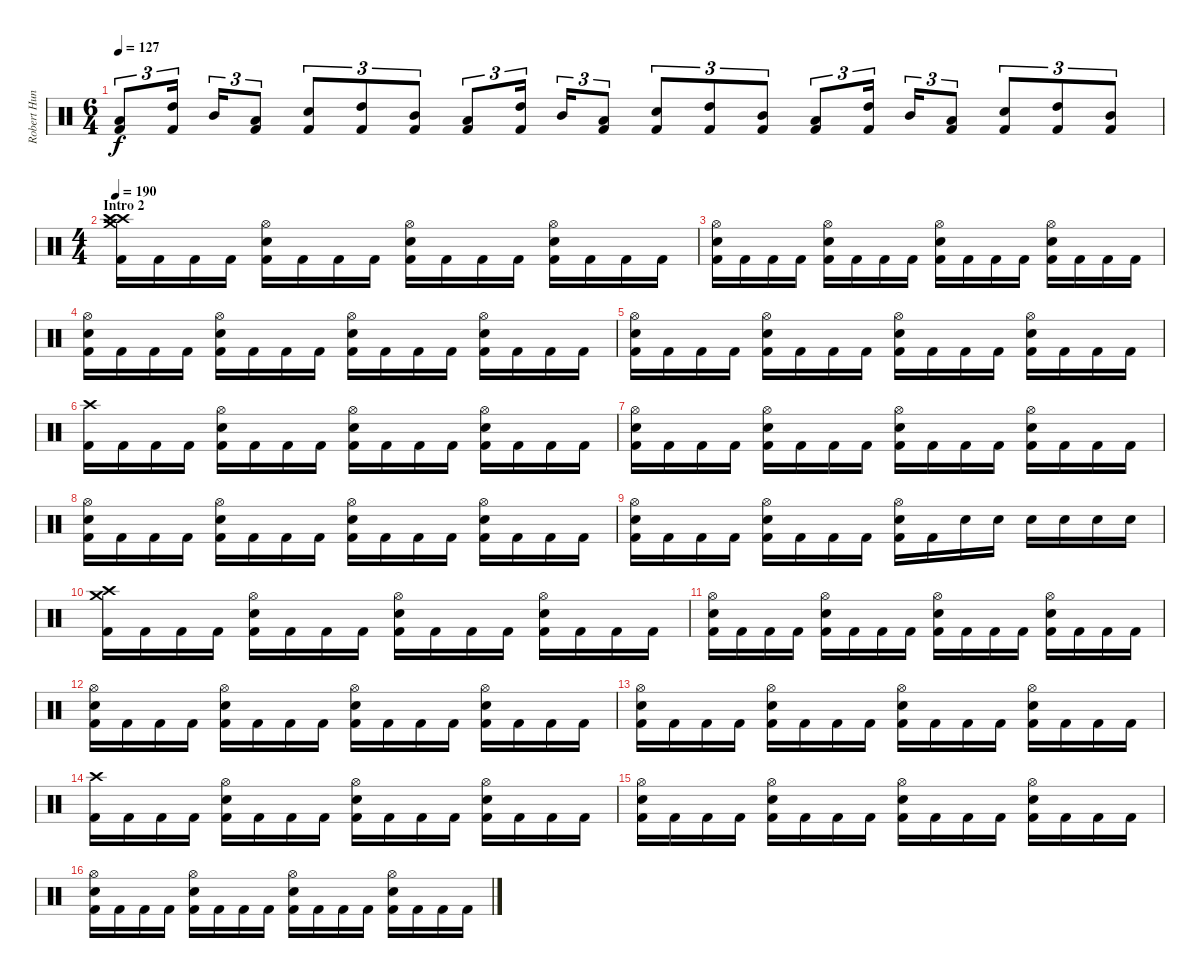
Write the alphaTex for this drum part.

\track ("Robert Hunecke" "Robert Hun") {instrument percussion}
\staff {score}
\articulation defaults
\ts (6 4)
\tempo 127
\clef neutral
\ks c
("Kick (hit) 2" "Low Tom (hit)").8{tu (3 2) dy f} ("Kick (hit) 2" "High Tom (hit)").16{tu (3 2)} "Mid Tom (hit)".16{tu (3 2)} ("Kick (hit) 2" "Low Tom (hit)").8{tu (3 2)} ("Kick (hit) 2" "Electric Snare (hit)").8{tu (3 2)} ("Kick (hit) 2" "High Tom (hit)").8{tu (3 2)} ("Kick (hit) 2" "Mid Tom (hit)").8{tu (3 2)} ("Kick (hit) 2" "Low Tom (hit)").8{tu (3 2)} ("Kick (hit) 2" "High Tom (hit)").16{tu (3 2)} "Mid Tom (hit)".16{tu (3 2)} ("Kick (hit) 2" "Low Tom (hit)").8{tu (3 2)} ("Kick (hit) 2" "Electric Snare (hit)").8{tu (3 2)} ("Kick (hit) 2" "High Tom (hit)").8{tu (3 2)} ("Kick (hit) 2" "Mid Tom (hit)").8{tu (3 2)} ("Kick (hit) 2" "Low Tom (hit)").8{tu (3 2)} ("Kick (hit) 2" "High Tom (hit)").16{tu (3 2)} "Mid Tom (hit)".16{tu (3 2)} ("Kick (hit) 2" "Low Tom (hit)").8{tu (3 2)} ("Kick (hit) 2" "Electric Snare (hit)").8{tu (3 2)} ("Kick (hit) 2" "High Tom (hit)").8{tu (3 2)} ("Kick (hit) 2" "Mid Tom (hit)").8{tu (3 2)} |
\ts (4 4)
\section ("" "Intro 2")
\tempo 190
("Kick (hit) 2" "Crash high (hit)" "Crash medium (hit)" "Crash high (hit)").16 "Kick (hit) 2".16 "Kick (hit) 2".16 "Kick (hit) 2".16 ("Kick (hit) 2" "Electric Snare (hit)" "Hi-Hat (open)").16 "Kick (hit) 2".16 "Kick (hit) 2".16 "Kick (hit) 2".16 ("Kick (hit) 2" "Electric Snare (hit)" "Hi-Hat (open)").16 "Kick (hit) 2".16 "Kick (hit) 2".16 "Kick (hit) 2".16 ("Kick (hit) 2" "Electric Snare (hit)" "Hi-Hat (open)").16 "Kick (hit) 2".16 "Kick (hit) 2".16 "Kick (hit) 2".16 |
("Kick (hit) 2" "Electric Snare (hit)" "Hi-Hat (open)").16 "Kick (hit) 2".16 "Kick (hit) 2".16 "Kick (hit) 2".16 ("Kick (hit) 2" "Electric Snare (hit)" "Hi-Hat (open)").16 "Kick (hit) 2".16 "Kick (hit) 2".16 "Kick (hit) 2".16 ("Kick (hit) 2" "Electric Snare (hit)" "Hi-Hat (open)").16 "Kick (hit) 2".16 "Kick (hit) 2".16 "Kick (hit) 2".16 ("Kick (hit) 2" "Electric Snare (hit)" "Hi-Hat (open)").16 "Kick (hit) 2".16 "Kick (hit) 2".16 "Kick (hit) 2".16 |
("Kick (hit) 2" "Electric Snare (hit)" "Hi-Hat (open)").16 "Kick (hit) 2".16 "Kick (hit) 2".16 "Kick (hit) 2".16 ("Kick (hit) 2" "Electric Snare (hit)" "Hi-Hat (open)").16 "Kick (hit) 2".16 "Kick (hit) 2".16 "Kick (hit) 2".16 ("Kick (hit) 2" "Electric Snare (hit)" "Hi-Hat (open)").16 "Kick (hit) 2".16 "Kick (hit) 2".16 "Kick (hit) 2".16 ("Kick (hit) 2" "Electric Snare (hit)" "Hi-Hat (open)").16 "Kick (hit) 2".16 "Kick (hit) 2".16 "Kick (hit) 2".16 |
("Kick (hit) 2" "Electric Snare (hit)" "Hi-Hat (open)").16 "Kick (hit) 2".16 "Kick (hit) 2".16 "Kick (hit) 2".16 ("Kick (hit) 2" "Electric Snare (hit)" "Hi-Hat (open)").16 "Kick (hit) 2".16 "Kick (hit) 2".16 "Kick (hit) 2".16 ("Kick (hit) 2" "Electric Snare (hit)" "Hi-Hat (open)").16 "Kick (hit) 2".16 "Kick (hit) 2".16 "Kick (hit) 2".16 ("Kick (hit) 2" "Electric Snare (hit)" "Hi-Hat (open)").16 "Kick (hit) 2".16 "Kick (hit) 2".16 "Kick (hit) 2".16 |
("Kick (hit) 2" "Crash high (hit)").16 "Kick (hit) 2".16 "Kick (hit) 2".16 "Kick (hit) 2".16 ("Kick (hit) 2" "Electric Snare (hit)" "Hi-Hat (open)").16 "Kick (hit) 2".16 "Kick (hit) 2".16 "Kick (hit) 2".16 ("Kick (hit) 2" "Electric Snare (hit)" "Hi-Hat (open)").16 "Kick (hit) 2".16 "Kick (hit) 2".16 "Kick (hit) 2".16 ("Kick (hit) 2" "Electric Snare (hit)" "Hi-Hat (open)").16 "Kick (hit) 2".16 "Kick (hit) 2".16 "Kick (hit) 2".16 |
("Kick (hit) 2" "Electric Snare (hit)" "Hi-Hat (open)").16 "Kick (hit) 2".16 "Kick (hit) 2".16 "Kick (hit) 2".16 ("Kick (hit) 2" "Electric Snare (hit)" "Hi-Hat (open)").16 "Kick (hit) 2".16 "Kick (hit) 2".16 "Kick (hit) 2".16 ("Kick (hit) 2" "Electric Snare (hit)" "Hi-Hat (open)").16 "Kick (hit) 2".16 "Kick (hit) 2".16 "Kick (hit) 2".16 ("Kick (hit) 2" "Electric Snare (hit)" "Hi-Hat (open)").16 "Kick (hit) 2".16 "Kick (hit) 2".16 "Kick (hit) 2".16 |
("Kick (hit) 2" "Electric Snare (hit)" "Hi-Hat (open)").16 "Kick (hit) 2".16 "Kick (hit) 2".16 "Kick (hit) 2".16 ("Kick (hit) 2" "Electric Snare (hit)" "Hi-Hat (open)").16 "Kick (hit) 2".16 "Kick (hit) 2".16 "Kick (hit) 2".16 ("Kick (hit) 2" "Electric Snare (hit)" "Hi-Hat (open)").16 "Kick (hit) 2".16 "Kick (hit) 2".16 "Kick (hit) 2".16 ("Kick (hit) 2" "Electric Snare (hit)" "Hi-Hat (open)").16 "Kick (hit) 2".16 "Kick (hit) 2".16 "Kick (hit) 2".16 |
("Kick (hit) 2" "Electric Snare (hit)" "Hi-Hat (open)").16 "Kick (hit) 2".16 "Kick (hit) 2".16 "Kick (hit) 2".16 ("Kick (hit) 2" "Electric Snare (hit)" "Hi-Hat (open)").16 "Kick (hit) 2".16 "Kick (hit) 2".16 "Kick (hit) 2".16 ("Kick (hit) 2" "Electric Snare (hit)" "Hi-Hat (open)").16 "Kick (hit) 2".16 "Electric Snare (hit)".16 "Electric Snare (hit)".16 "Electric Snare (hit)".16 "Electric Snare (hit)".16 "Electric Snare (hit)".16 "Electric Snare (hit)".16 |
("Kick (hit) 2" "Crash high (hit)" "Crash medium (hit)").16 "Kick (hit) 2".16 "Kick (hit) 2".16 "Kick (hit) 2".16 ("Kick (hit) 2" "Electric Snare (hit)" "Hi-Hat (open)").16 "Kick (hit) 2".16 "Kick (hit) 2".16 "Kick (hit) 2".16 ("Kick (hit) 2" "Electric Snare (hit)" "Hi-Hat (open)").16 "Kick (hit) 2".16 "Kick (hit) 2".16 "Kick (hit) 2".16 ("Kick (hit) 2" "Electric Snare (hit)" "Hi-Hat (open)").16 "Kick (hit) 2".16 "Kick (hit) 2".16 "Kick (hit) 2".16 |
("Kick (hit) 2" "Electric Snare (hit)" "Hi-Hat (open)").16 "Kick (hit) 2".16 "Kick (hit) 2".16 "Kick (hit) 2".16 ("Kick (hit) 2" "Electric Snare (hit)" "Hi-Hat (open)").16 "Kick (hit) 2".16 "Kick (hit) 2".16 "Kick (hit) 2".16 ("Kick (hit) 2" "Electric Snare (hit)" "Hi-Hat (open)").16 "Kick (hit) 2".16 "Kick (hit) 2".16 "Kick (hit) 2".16 ("Kick (hit) 2" "Electric Snare (hit)" "Hi-Hat (open)").16 "Kick (hit) 2".16 "Kick (hit) 2".16 "Kick (hit) 2".16 |
("Kick (hit) 2" "Electric Snare (hit)" "Hi-Hat (open)").16 "Kick (hit) 2".16 "Kick (hit) 2".16 "Kick (hit) 2".16 ("Kick (hit) 2" "Electric Snare (hit)" "Hi-Hat (open)").16 "Kick (hit) 2".16 "Kick (hit) 2".16 "Kick (hit) 2".16 ("Kick (hit) 2" "Electric Snare (hit)" "Hi-Hat (open)").16 "Kick (hit) 2".16 "Kick (hit) 2".16 "Kick (hit) 2".16 ("Kick (hit) 2" "Electric Snare (hit)" "Hi-Hat (open)").16 "Kick (hit) 2".16 "Kick (hit) 2".16 "Kick (hit) 2".16 |
("Kick (hit) 2" "Electric Snare (hit)" "Hi-Hat (open)").16 "Kick (hit) 2".16 "Kick (hit) 2".16 "Kick (hit) 2".16 ("Kick (hit) 2" "Electric Snare (hit)" "Hi-Hat (open)").16 "Kick (hit) 2".16 "Kick (hit) 2".16 "Kick (hit) 2".16 ("Kick (hit) 2" "Electric Snare (hit)" "Hi-Hat (open)").16 "Kick (hit) 2".16 "Kick (hit) 2".16 "Kick (hit) 2".16 ("Kick (hit) 2" "Electric Snare (hit)" "Hi-Hat (open)").16 "Kick (hit) 2".16 "Kick (hit) 2".16 "Kick (hit) 2".16 |
("Kick (hit) 2" "Crash high (hit)").16 "Kick (hit) 2".16 "Kick (hit) 2".16 "Kick (hit) 2".16 ("Kick (hit) 2" "Electric Snare (hit)" "Hi-Hat (open)").16 "Kick (hit) 2".16 "Kick (hit) 2".16 "Kick (hit) 2".16 ("Kick (hit) 2" "Electric Snare (hit)" "Hi-Hat (open)").16 "Kick (hit) 2".16 "Kick (hit) 2".16 "Kick (hit) 2".16 ("Kick (hit) 2" "Electric Snare (hit)" "Hi-Hat (open)").16 "Kick (hit) 2".16 "Kick (hit) 2".16 "Kick (hit) 2".16 |
("Kick (hit) 2" "Electric Snare (hit)" "Hi-Hat (open)").16 "Kick (hit) 2".16 "Kick (hit) 2".16 "Kick (hit) 2".16 ("Kick (hit) 2" "Electric Snare (hit)" "Hi-Hat (open)").16 "Kick (hit) 2".16 "Kick (hit) 2".16 "Kick (hit) 2".16 ("Kick (hit) 2" "Electric Snare (hit)" "Hi-Hat (open)").16 "Kick (hit) 2".16 "Kick (hit) 2".16 "Kick (hit) 2".16 ("Kick (hit) 2" "Electric Snare (hit)" "Hi-Hat (open)").16 "Kick (hit) 2".16 "Kick (hit) 2".16 "Kick (hit) 2".16 |
("Kick (hit) 2" "Electric Snare (hit)" "Hi-Hat (open)").16 "Kick (hit) 2".16 "Kick (hit) 2".16 "Kick (hit) 2".16 ("Kick (hit) 2" "Electric Snare (hit)" "Hi-Hat (open)").16 "Kick (hit) 2".16 "Kick (hit) 2".16 "Kick (hit) 2".16 ("Kick (hit) 2" "Electric Snare (hit)" "Hi-Hat (open)").16 "Kick (hit) 2".16 "Kick (hit) 2".16 "Kick (hit) 2".16 ("Kick (hit) 2" "Electric Snare (hit)" "Hi-Hat (open)").16 "Kick (hit) 2".16 "Kick (hit) 2".16 "Kick (hit) 2".16
